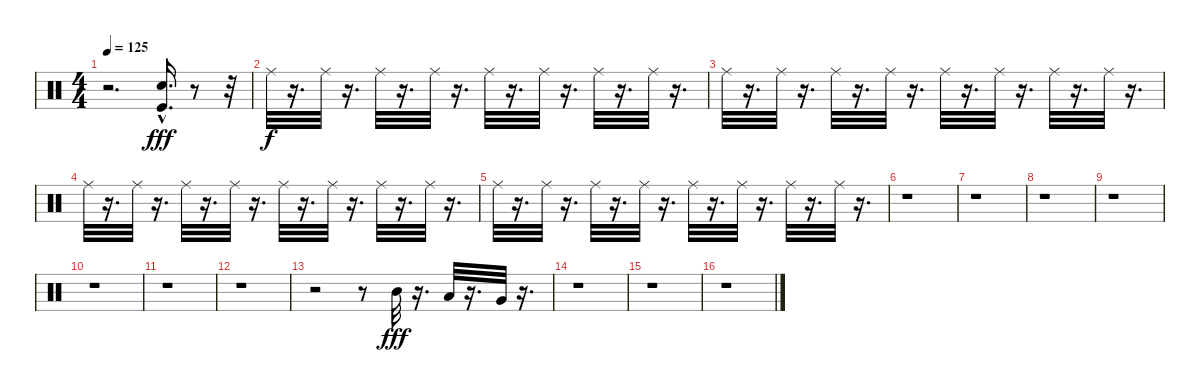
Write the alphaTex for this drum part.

\track "" {instrument percussion}
\staff {score}
\articulation defaults
\ts (4 4)
\tempo 125
\clef neutral
\ks c
r.2{d dy f} ("Kick (hit)" "Electric Snare (hit)"{hac}).16{d dy fff} r.8 r.32 |
"Ride (middle)".32{dy f} r.16{d} "Ride (middle)".32 r.16{d} "Ride (middle)".32 r.16{d} "Ride (middle)".32 r.16{d} "Ride (middle)".32 r.16{d} "Ride (middle)".32 r.16{d} "Ride (middle)".32 r.16{d} "Ride (middle)".32 r.16{d} |
"Ride (middle)".32 r.16{d} "Ride (middle)".32 r.16{d} "Ride (middle)".32 r.16{d} "Ride (middle)".32 r.16{d} "Ride (middle)".32 r.16{d} "Ride (middle)".32 r.16{d} "Ride (middle)".32 r.16{d} "Ride (middle)".32 r.16{d} |
"Ride (middle)".32 r.16{d} "Ride (middle)".32 r.16{d} "Ride (middle)".32 r.16{d} "Ride (middle)".32 r.16{d} "Ride (middle)".32 r.16{d} "Ride (middle)".32 r.16{d} "Ride (middle)".32 r.16{d} "Ride (middle)".32 r.16{d} |
"Ride (middle)".32 r.16{d} "Ride (middle)".32 r.16{d} "Ride (middle)".32 r.16{d} "Ride (middle)".32 r.16{d} "Ride (middle)".32 r.16{d} "Ride (middle)".32 r.16{d} "Ride (middle)".32 r.16{d} "Ride (middle)".32 r.16{d} |
r.1 |
r.1 |
r.1 |
r.1 |
r.1 |
r.1 |
r.1 |
r.2 r.8 "Mid Tom (hit)".32{dy fff} r.16{d} "Low Tom (hit)".32 r.16{d} "Very Low Tom (hit)".32 r.16{d} |
r.1 |
r.1 |
r.1
